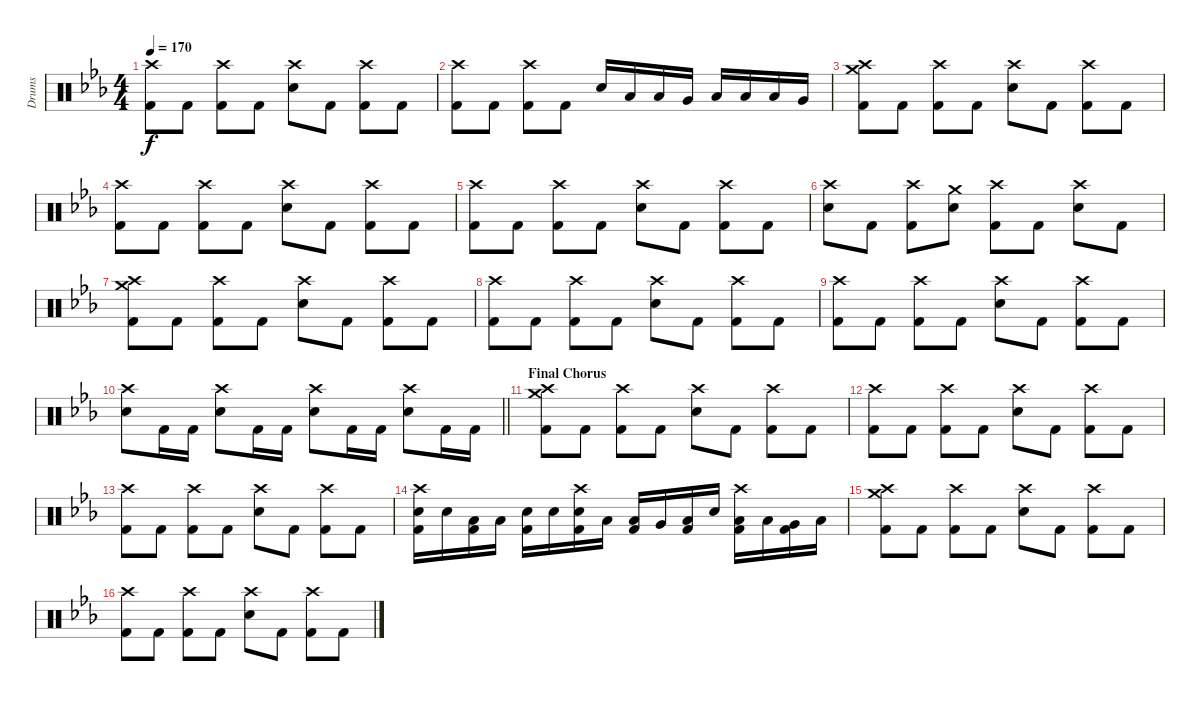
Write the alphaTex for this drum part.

\track ("Drums" "Drums") {instrument percussion}
\staff {score}
\articulation defaults
\ts (4 4)
\tempo 170
\clef neutral
\ks cminor
("Crash high (hit)" "Kick (hit) 2").8{dy f} "Kick (hit) 2".8 ("Crash high (hit)" "Kick (hit) 2").8 "Kick (hit) 2".8 ("Crash high (hit)" "Electric Snare (hit)").8 "Kick (hit) 2".8 ("Crash high (hit)" "Kick (hit) 2").8 "Kick (hit) 2".8 |
("Crash high (hit)" "Kick (hit) 2").8 "Kick (hit) 2".8 ("Crash high (hit)" "Kick (hit) 2").8 "Kick (hit) 2".8 "Electric Snare (hit)".16 "Low Tom (hit)".16 "Low Tom (hit)".16 "Very Low Tom (hit)".16 "Low Floor Tom (hit)".16 "Low Tom (hit)".16 "Low Tom (hit)".16 "Very Low Tom (hit)".16 |
("Crash high (hit)" "Crash medium (hit)" "Kick (hit) 2").8 "Kick (hit) 2".8 ("Crash high (hit)" "Kick (hit) 2").8 "Kick (hit) 2".8 ("Crash high (hit)" "Electric Snare (hit)").8 "Kick (hit) 2".8 ("Crash high (hit)" "Kick (hit) 2").8 "Kick (hit) 2".8 |
("Crash high (hit)" "Kick (hit) 2").8 "Kick (hit) 2".8 ("Crash high (hit)" "Kick (hit) 2").8 "Kick (hit) 2".8 ("Crash high (hit)" "Electric Snare (hit)").8 "Kick (hit) 2".8 ("Crash high (hit)" "Kick (hit) 2").8 "Kick (hit) 2".8 |
("Crash high (hit)" "Kick (hit) 2").8 "Kick (hit) 2".8 ("Crash high (hit)" "Kick (hit) 2").8 "Kick (hit) 2".8 ("Crash high (hit)" "Electric Snare (hit)").8 "Kick (hit) 2".8 ("Crash high (hit)" "Kick (hit) 2").8 "Kick (hit) 2".8 |
("Crash high (hit)" "Electric Snare (hit)").8 "Kick (hit) 2".8 ("Crash high (hit)" "Kick (hit) 2").8 ("Crash medium (hit)" "Electric Snare (hit)").8 ("Crash high (hit)" "Kick (hit) 2").8 "Kick (hit) 2".8 ("Crash high (hit)" "Electric Snare (hit)").8 "Kick (hit) 2".8 |
("Crash high (hit)" "Crash medium (hit)" "Kick (hit) 2").8 "Kick (hit) 2".8 ("Crash high (hit)" "Kick (hit) 2").8 "Kick (hit) 2".8 ("Crash high (hit)" "Electric Snare (hit)").8 "Kick (hit) 2".8 ("Crash high (hit)" "Kick (hit) 2").8 "Kick (hit) 2".8 |
("Crash high (hit)" "Kick (hit) 2").8 "Kick (hit) 2".8 ("Crash high (hit)" "Kick (hit) 2").8 "Kick (hit) 2".8 ("Crash high (hit)" "Electric Snare (hit)").8 "Kick (hit) 2".8 ("Crash high (hit)" "Kick (hit) 2").8 "Kick (hit) 2".8 |
("Crash high (hit)" "Kick (hit) 2").8 "Kick (hit) 2".8 ("Crash high (hit)" "Kick (hit) 2").8 "Kick (hit) 2".8 ("Crash high (hit)" "Electric Snare (hit)").8 "Kick (hit) 2".8 ("Crash high (hit)" "Kick (hit) 2").8 "Kick (hit) 2".8 |
\barLineRight lightlight
("Crash high (hit)" "Electric Snare (hit)").8 "Kick (hit) 2".16 "Kick (hit) 2".16 ("Crash high (hit)" "Electric Snare (hit)").8 "Kick (hit) 2".16 "Kick (hit) 2".16 ("Crash high (hit)" "Electric Snare (hit)").8 "Kick (hit) 2".16 "Kick (hit) 2".16 ("Crash high (hit)" "Electric Snare (hit)").8 "Kick (hit) 2".16 "Kick (hit) 2".16 |
\section ("" "Final Chorus")
("Crash high (hit)" "Crash medium (hit)" "Kick (hit) 2").8 "Kick (hit) 2".8 ("Crash high (hit)" "Kick (hit) 2").8 "Kick (hit) 2".8 ("Crash high (hit)" "Electric Snare (hit)").8 "Kick (hit) 2".8 ("Crash high (hit)" "Kick (hit) 2").8 "Kick (hit) 2".8 |
("Crash high (hit)" "Kick (hit) 2").8 "Kick (hit) 2".8 ("Crash high (hit)" "Kick (hit) 2").8 "Kick (hit) 2".8 ("Crash high (hit)" "Electric Snare (hit)").8 "Kick (hit) 2".8 ("Crash high (hit)" "Kick (hit) 2").8 "Kick (hit) 2".8 |
("Crash high (hit)" "Kick (hit) 2").8 "Kick (hit) 2".8 ("Crash high (hit)" "Kick (hit) 2").8 "Kick (hit) 2".8 ("Crash high (hit)" "Electric Snare (hit)").8 "Kick (hit) 2".8 ("Crash high (hit)" "Kick (hit) 2").8 "Kick (hit) 2".8 |
("Crash high (hit)" "Electric Snare (hit)" "Kick (hit) 2").16 "Electric Snare (hit)".16 ("Low Tom (hit)" "Kick (hit) 2").16 "Low Tom (hit)".16 ("Electric Snare (hit)" "Kick (hit) 2").16 "Electric Snare (hit)".16 ("Crash high (hit)" "Electric Snare (hit)" "Kick (hit) 2").16 "Low Tom (hit)".16 ("Low Tom (hit)" "Kick (hit) 2").16 "Very Low Tom (hit)".16 ("Low Floor Tom (hit)" "Kick (hit) 2").16 "Electric Snare (hit)".16 ("Crash high (hit)" "Low Tom (hit)" "Kick (hit) 2").16 "Low Tom (hit)".16 ("Very Low Tom (hit)" "Kick (hit) 2").16 "Low Floor Tom (hit)".16 |
("Crash high (hit)" "Crash medium (hit)" "Kick (hit) 2").8 "Kick (hit) 2".8 ("Crash high (hit)" "Kick (hit) 2").8 "Kick (hit) 2".8 ("Crash high (hit)" "Electric Snare (hit)").8 "Kick (hit) 2".8 ("Crash high (hit)" "Kick (hit) 2").8 "Kick (hit) 2".8 |
("Crash high (hit)" "Kick (hit) 2").8 "Kick (hit) 2".8 ("Crash high (hit)" "Kick (hit) 2").8 "Kick (hit) 2".8 ("Crash high (hit)" "Electric Snare (hit)").8 "Kick (hit) 2".8 ("Crash high (hit)" "Kick (hit) 2").8 "Kick (hit) 2".8
